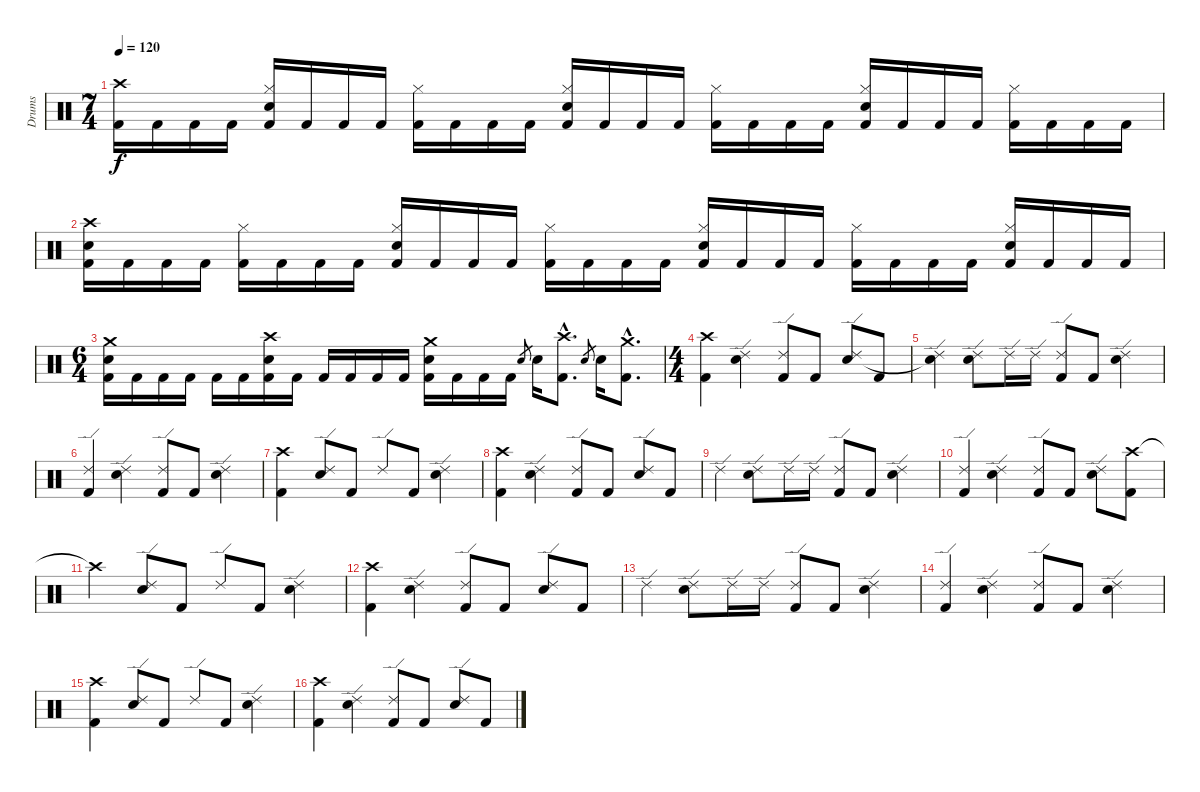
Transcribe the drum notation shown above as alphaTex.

\track ("Drums" "Drums") {instrument percussion}
\staff {score}
\articulation defaults
\ts (7 4)
\tempo 120
\clef neutral
\ks c
("Crash high (hit)" "Kick (hit) 2").16{dy f} "Kick (hit) 2".16 "Kick (hit) 2".16 "Kick (hit) 2".16 ("Hi-Hat (closed)" "Snare (hit) 2" "Kick (hit) 2").16 "Kick (hit) 2".16 "Kick (hit) 2".16 "Kick (hit) 2".16 ("Hi-Hat (closed)" "Kick (hit) 2").16 "Kick (hit) 2".16 "Kick (hit) 2".16 "Kick (hit) 2".16 ("Hi-Hat (closed)" "Snare (hit) 2" "Kick (hit) 2").16 "Kick (hit) 2".16 "Kick (hit) 2".16 "Kick (hit) 2".16 ("Hi-Hat (closed)" "Kick (hit) 2").16 "Kick (hit) 2".16 "Kick (hit) 2".16 "Kick (hit) 2".16 ("Hi-Hat (closed)" "Snare (hit) 2" "Kick (hit) 2").16 "Kick (hit) 2".16 "Kick (hit) 2".16 "Kick (hit) 2".16 ("Hi-Hat (closed)" "Kick (hit) 2").16 "Kick (hit) 2".16 "Kick (hit) 2".16 "Kick (hit) 2".16 |
("Crash high (hit)" "Snare (hit) 2" "Kick (hit) 2").16 "Kick (hit) 2".16 "Kick (hit) 2".16 "Kick (hit) 2".16 ("Hi-Hat (closed)" "Kick (hit) 2").16 "Kick (hit) 2".16 "Kick (hit) 2".16 "Kick (hit) 2".16 ("Hi-Hat (closed)" "Snare (hit) 2" "Kick (hit) 2").16 "Kick (hit) 2".16 "Kick (hit) 2".16 "Kick (hit) 2".16 ("Hi-Hat (closed)" "Kick (hit) 2").16 "Kick (hit) 2".16 "Kick (hit) 2".16 "Kick (hit) 2".16 ("Hi-Hat (closed)" "Snare (hit) 2" "Kick (hit) 2").16 "Kick (hit) 2".16 "Kick (hit) 2".16 "Kick (hit) 2".16 ("Hi-Hat (closed)" "Kick (hit) 2").16 "Kick (hit) 2".16 "Kick (hit) 2".16 "Kick (hit) 2".16 ("Hi-Hat (closed)" "Snare (hit) 2" "Kick (hit) 2").16 "Kick (hit) 2".16 "Kick (hit) 2".16 "Kick (hit) 2".16 |
\ts (6 4)
("Crash medium (hit)" "Snare (hit) 2" "Kick (hit) 2").16 "Kick (hit) 2".16 "Kick (hit) 2".16 "Kick (hit) 2".16 "Kick (hit) 2".16 "Kick (hit) 2".16 ("Crash high (hit)" "Snare (hit) 2" "Kick (hit) 2").16 "Kick (hit) 2".16 "Kick (hit) 2".16 "Kick (hit) 2".16 "Kick (hit) 2".16 "Kick (hit) 2".16 ("Crash medium (hit)" "Snare (hit) 2" "Kick (hit) 2").16 "Kick (hit) 2".16 "Kick (hit) 2".16 "Kick (hit) 2".16 "Snare (hit) 2".8{gr} "Snare (hit) 2".16 ("Crash high (hit)"{hac} "Kick (hit) 2"{hac}).8{d} "Snare (hit) 2".8{gr} "Snare (hit) 2".16 ("Crash medium (hit)"{hac} "Kick (hit) 2"{hac}).8{d} |
\ts (4 4)
("Crash high (hit)" "Kick (hit) 2").4 ("Ride (edge) 2" "Snare (hit) 2").4 ("Ride (edge) 2" "Kick (hit) 2").8 "Kick (hit) 2".8 ("Ride (edge) 2" "Snare (hit) 2").8 "Kick (hit) 2".8 |
("Ride (edge) 2" "Snare (hit)"{t}).4 ("Ride (edge) 2" "Snare (hit) 2").8 "Ride (edge) 2".16 "Ride (edge) 2".16 ("Ride (edge) 2" "Kick (hit) 2").8 "Kick (hit) 2".8 ("Ride (edge) 2" "Snare (hit) 2").4 |
("Ride (edge) 2" "Kick (hit) 2").4 ("Ride (edge) 2" "Snare (hit) 2").4 ("Ride (edge) 2" "Kick (hit) 2").8 "Kick (hit) 2".8 ("Ride (edge) 2" "Snare (hit) 2").4 |
("Crash high (hit)" "Kick (hit) 2").4 ("Ride (edge) 2" "Snare (hit) 2").8 "Kick (hit) 2".8 "Ride (edge) 2".8 "Kick (hit) 2".8 ("Ride (edge) 2" "Snare (hit) 2").4 |
("Crash high (hit)" "Kick (hit) 2").4 ("Ride (edge) 2" "Snare (hit) 2").4 ("Ride (edge) 2" "Kick (hit) 2").8 "Kick (hit) 2".8 ("Ride (edge) 2" "Snare (hit) 2").8 "Kick (hit) 2".8 |
"Ride (edge) 2".4 ("Ride (edge) 2" "Snare (hit) 2").8 "Ride (edge) 2".16 "Ride (edge) 2".16 ("Ride (edge) 2" "Kick (hit) 2").8 "Kick (hit) 2".8 ("Ride (edge) 2" "Snare (hit) 2").4 |
("Ride (edge) 2" "Kick (hit) 2").4 ("Ride (edge) 2" "Snare (hit) 2").4 ("Ride (edge) 2" "Kick (hit) 2").8 "Kick (hit) 2".8 ("Ride (edge) 2" "Snare (hit) 2").8 ("Crash high (hit)" "Kick (hit) 2").8 |
"Crash high (hit)"{t}.4 ("Ride (edge) 2" "Snare (hit) 2").8 "Kick (hit) 2".8 "Ride (edge) 2".8 "Kick (hit) 2".8 ("Ride (edge) 2" "Snare (hit) 2").4 |
("Crash high (hit)" "Kick (hit) 2").4 ("Ride (edge) 2" "Snare (hit) 2").4 ("Ride (edge) 2" "Kick (hit) 2").8 "Kick (hit) 2".8 ("Ride (edge) 2" "Snare (hit) 2").8 "Kick (hit) 2".8 |
"Ride (edge) 2".4 ("Ride (edge) 2" "Snare (hit) 2").8 "Ride (edge) 2".16 "Ride (edge) 2".16 ("Ride (edge) 2" "Kick (hit) 2").8 "Kick (hit) 2".8 ("Ride (edge) 2" "Snare (hit) 2").4 |
("Ride (edge) 2" "Kick (hit) 2").4 ("Ride (edge) 2" "Snare (hit) 2").4 ("Ride (edge) 2" "Kick (hit) 2").8 "Kick (hit) 2".8 ("Ride (edge) 2" "Snare (hit) 2").4 |
("Crash high (hit)" "Kick (hit) 2").4 ("Ride (edge) 2" "Snare (hit) 2").8 "Kick (hit) 2".8 "Ride (edge) 2".8 "Kick (hit) 2".8 ("Ride (edge) 2" "Snare (hit) 2").4 |
("Crash high (hit)" "Kick (hit) 2").4 ("Ride (edge) 2" "Snare (hit) 2").4 ("Ride (edge) 2" "Kick (hit) 2").8 "Kick (hit) 2".8 ("Ride (edge) 2" "Snare (hit) 2").8 "Kick (hit) 2".8
